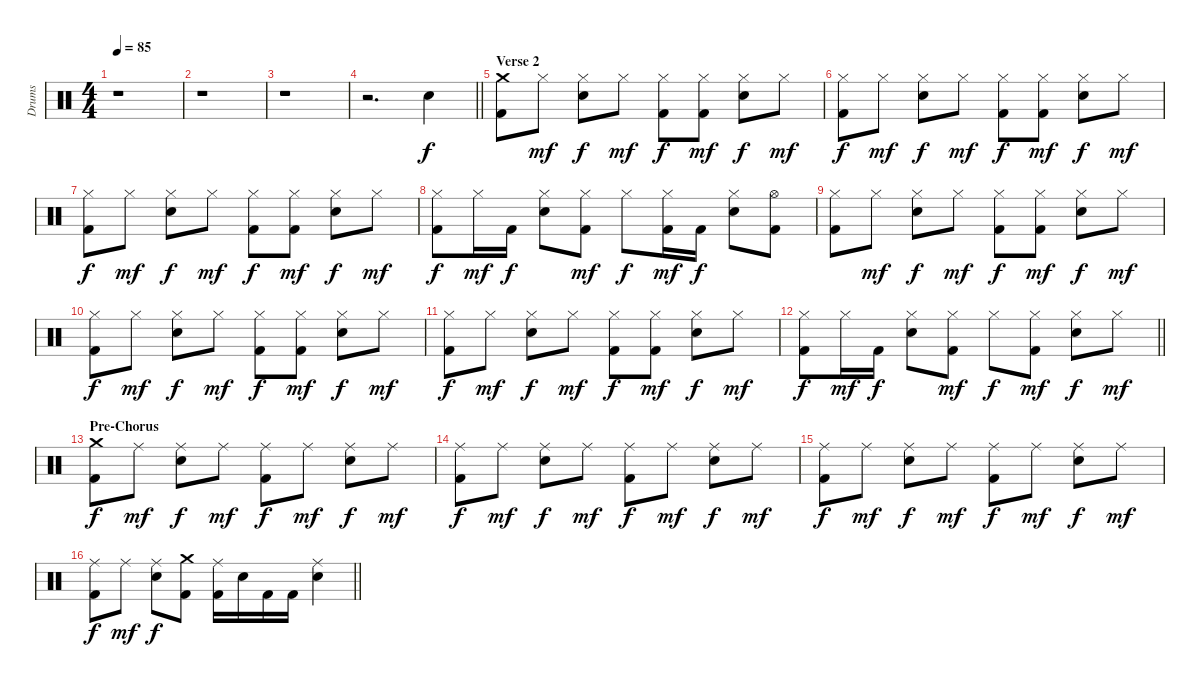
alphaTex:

\track ("Drums" "Drums") {instrument percussion}
\staff {score}
\articulation defaults
\ts (4 4)
\tempo 85
\clef neutral
\ks c
r.1{dy f} |
r.1 |
r.1 |
\barLineRight lightlight
r.2{d} "Snare (hit) 2".4 |
\section ("" "Verse 2")
("Crash medium (hit)" "Kick (hit) 2").8 "Hi-Hat (closed)".8{dy mf} ("Hi-Hat (closed)" "Snare (hit) 2").8{dy f} "Hi-Hat (closed)".8{dy mf} ("Hi-Hat (closed)" "Kick (hit) 2").8{dy f} ("Hi-Hat (closed)" "Kick (hit) 2").8{dy mf} ("Hi-Hat (closed)" "Snare (hit) 2").8{dy f} "Hi-Hat (closed)".8{dy mf} |
("Hi-Hat (closed)" "Kick (hit) 2").8{dy f} "Hi-Hat (closed)".8{dy mf} ("Hi-Hat (closed)" "Snare (hit) 2").8{dy f} "Hi-Hat (closed)".8{dy mf} ("Hi-Hat (closed)" "Kick (hit) 2").8{dy f} ("Hi-Hat (closed)" "Kick (hit) 2").8{dy mf} ("Hi-Hat (closed)" "Snare (hit) 2").8{dy f} "Hi-Hat (closed)".8{dy mf} |
("Hi-Hat (closed)" "Kick (hit) 2").8{dy f} "Hi-Hat (closed)".8{dy mf} ("Hi-Hat (closed)" "Snare (hit) 2").8{dy f} "Hi-Hat (closed)".8{dy mf} ("Hi-Hat (closed)" "Kick (hit) 2").8{dy f} ("Hi-Hat (closed)" "Kick (hit) 2").8{dy mf} ("Hi-Hat (closed)" "Snare (hit) 2").8{dy f} "Hi-Hat (closed)".8{dy mf} |
("Hi-Hat (closed)" "Kick (hit) 2").8{dy f} "Hi-Hat (closed)".16{dy mf} "Kick (hit) 2".16{dy f} ("Hi-Hat (closed)" "Snare (hit) 2").8 ("Hi-Hat (closed)" "Kick (hit) 2").8{dy mf} "Hi-Hat (closed)".8{dy f} ("Hi-Hat (closed)" "Kick (hit) 2").16{dy mf} "Kick (hit) 2".16{dy f} ("Hi-Hat (closed)" "Snare (hit) 2").8 ("Hi-Hat (open)" "Kick (hit) 2").8 |
("Hi-Hat (closed)" "Kick (hit) 2").8 "Hi-Hat (closed)".8{dy mf} ("Hi-Hat (closed)" "Snare (hit) 2").8{dy f} "Hi-Hat (closed)".8{dy mf} ("Hi-Hat (closed)" "Kick (hit) 2").8{dy f} ("Hi-Hat (closed)" "Kick (hit) 2").8{dy mf} ("Hi-Hat (closed)" "Snare (hit) 2").8{dy f} "Hi-Hat (closed)".8{dy mf} |
("Hi-Hat (closed)" "Kick (hit) 2").8{dy f} "Hi-Hat (closed)".8{dy mf} ("Hi-Hat (closed)" "Snare (hit) 2").8{dy f} "Hi-Hat (closed)".8{dy mf} ("Hi-Hat (closed)" "Kick (hit) 2").8{dy f} ("Hi-Hat (closed)" "Kick (hit) 2").8{dy mf} ("Hi-Hat (closed)" "Snare (hit) 2").8{dy f} "Hi-Hat (closed)".8{dy mf} |
("Hi-Hat (closed)" "Kick (hit) 2").8{dy f} "Hi-Hat (closed)".8{dy mf} ("Hi-Hat (closed)" "Snare (hit) 2").8{dy f} "Hi-Hat (closed)".8{dy mf} ("Hi-Hat (closed)" "Kick (hit) 2").8{dy f} ("Hi-Hat (closed)" "Kick (hit) 2").8{dy mf} ("Hi-Hat (closed)" "Snare (hit) 2").8{dy f} "Hi-Hat (closed)".8{dy mf} |
\barLineRight lightlight
("Hi-Hat (closed)" "Kick (hit) 2").8{dy f} "Hi-Hat (closed)".16{dy mf} "Kick (hit) 2".16{dy f} ("Hi-Hat (closed)" "Snare (hit) 2").8 ("Hi-Hat (closed)" "Kick (hit) 2").8{dy mf} "Hi-Hat (closed)".8{dy f} ("Hi-Hat (closed)" "Kick (hit) 2").8{dy mf} ("Hi-Hat (closed)" "Snare (hit) 2").8{dy f} "Hi-Hat (closed)".8{dy mf} |
\section ("" "Pre-Chorus")
("Crash medium (hit)" "Kick (hit) 2").8{dy f} "Ride (middle)".8{dy mf} ("Ride (middle)" "Snare (hit) 2").8{dy f} "Ride (middle)".8{dy mf} ("Ride (middle)" "Kick (hit) 2").8{dy f} "Ride (middle)".8{dy mf} ("Ride (middle)" "Snare (hit) 2").8{dy f} "Ride (middle)".8{dy mf} |
("Ride (middle)" "Kick (hit) 2").8{dy f} "Ride (middle)".8{dy mf} ("Ride (middle)" "Snare (hit) 2").8{dy f} "Ride (middle)".8{dy mf} ("Ride (middle)" "Kick (hit) 2").8{dy f} "Ride (middle)".8{dy mf} ("Ride (middle)" "Snare (hit) 2").8{dy f} "Ride (middle)".8{dy mf} |
("Ride (middle)" "Kick (hit) 2").8{dy f} "Ride (middle)".8{dy mf} ("Ride (middle)" "Snare (hit) 2").8{dy f} "Ride (middle)".8{dy mf} ("Ride (middle)" "Kick (hit) 2").8{dy f} "Ride (middle)".8{dy mf} ("Ride (middle)" "Snare (hit) 2").8{dy f} "Ride (middle)".8{dy mf} |
\barLineRight lightlight
("Ride (middle)" "Kick (hit) 2").8{dy f} "Ride (middle)".8{dy mf} ("Ride (middle)" "Snare (hit) 2").8{dy f} ("Crash medium (hit)" "Kick (hit) 2").8 ("Ride (middle)" "Kick (hit) 2").16 "Snare (hit) 2".16 "Kick (hit) 2".16 "Kick (hit) 2".16 ("Ride (middle)" "Snare (hit) 2").4
